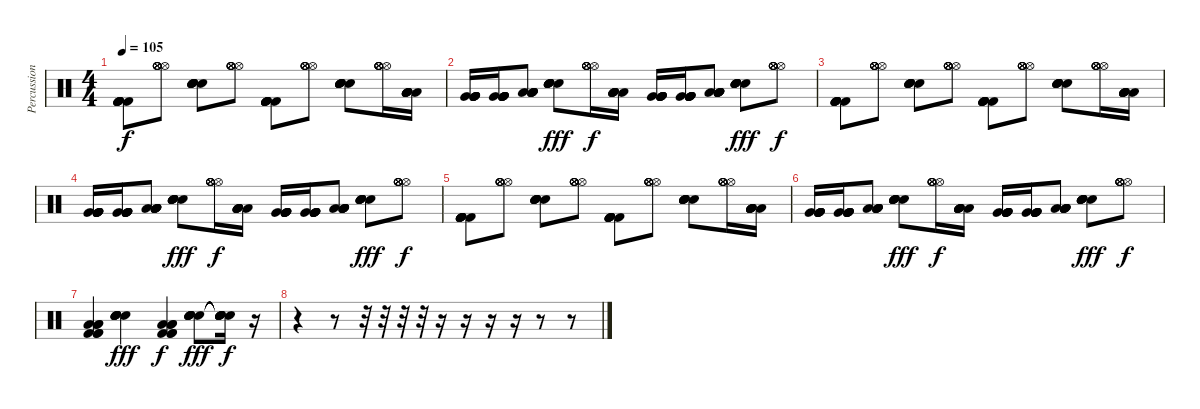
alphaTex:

\track ("Percussion" "Percussion") {instrument percussion}
\staff {score}
\articulation defaults
\ts (4 4)
\tempo 105
\clef neutral
\ks c
("Kick (hit) 2" "Kick (hit) 2" "Kick (hit) 2" "Kick (hit) 2" "Kick (hit) 2" "Kick (hit) 2").8{dy f} ("Hi-Hat (open)" "Hi-Hat (open)" "Hi-Hat (open)" "Hi-Hat (open)" "Hi-Hat (open)" "Hi-Hat (open)").8 ("Snare (hit) 2" "Snare (hit) 2" "Snare (hit) 2" "Snare (hit) 2" "Snare (hit) 2" "Snare (hit) 2").8 ("Hi-Hat (open)" "Hi-Hat (open)" "Hi-Hat (open)" "Hi-Hat (open)" "Hi-Hat (open)" "Hi-Hat (open)").8 ("Kick (hit) 2" "Kick (hit) 2" "Kick (hit) 2" "Kick (hit) 2" "Kick (hit) 2" "Kick (hit) 2").8 ("Hi-Hat (open)" "Hi-Hat (open)" "Hi-Hat (open)" "Hi-Hat (open)" "Hi-Hat (open)" "Hi-Hat (open)").8 ("Snare (hit) 2" "Snare (hit) 2" "Snare (hit) 2" "Snare (hit) 2" "Snare (hit) 2" "Snare (hit) 2").8 ("Hi-Hat (open)" "Hi-Hat (open)" "Hi-Hat (open)" "Hi-Hat (open)" "Hi-Hat (open)" "Hi-Hat (open)").16 ("Low Tom (hit)" "Low Tom (hit)" "Low Tom (hit)" "Low Tom (hit)" "Low Tom (hit)" "Low Tom (hit)").16 |
("Very Low Tom (hit)" "Very Low Tom (hit)" "Very Low Tom (hit)" "Very Low Tom (hit)" "Very Low Tom (hit)" "Very Low Tom (hit)").16 ("Very Low Tom (hit)" "Very Low Tom (hit)" "Very Low Tom (hit)" "Very Low Tom (hit)" "Very Low Tom (hit)" "Very Low Tom (hit)").16 ("Low Floor Tom (hit)" "Low Floor Tom (hit)" "Low Floor Tom (hit)" "Low Floor Tom (hit)" "Low Floor Tom (hit)" "Low Floor Tom (hit)").8 ("Snare (hit) 2" "Snare (hit) 2" "Snare (hit) 2" "Snare (hit) 2" "Snare (hit) 2" "Snare (hit) 2").8{dy fff} ("Hi-Hat (open)" "Hi-Hat (open)" "Hi-Hat (open)" "Hi-Hat (open)" "Hi-Hat (open)" "Hi-Hat (open)").16{dy f} ("Low Tom (hit)" "Low Tom (hit)" "Low Tom (hit)" "Low Tom (hit)" "Low Tom (hit)" "Low Tom (hit)").16 ("Very Low Tom (hit)" "Very Low Tom (hit)" "Very Low Tom (hit)" "Very Low Tom (hit)" "Very Low Tom (hit)" "Very Low Tom (hit)").16 ("Very Low Tom (hit)" "Very Low Tom (hit)" "Very Low Tom (hit)" "Very Low Tom (hit)" "Very Low Tom (hit)" "Very Low Tom (hit)").16 ("Low Floor Tom (hit)" "Low Floor Tom (hit)" "Low Floor Tom (hit)" "Low Floor Tom (hit)" "Low Floor Tom (hit)" "Low Floor Tom (hit)").8 ("Snare (hit) 2" "Snare (hit) 2" "Snare (hit) 2" "Snare (hit) 2" "Snare (hit) 2" "Snare (hit) 2").8{dy fff} ("Hi-Hat (open)" "Hi-Hat (open)" "Hi-Hat (open)" "Hi-Hat (open)" "Hi-Hat (open)" "Hi-Hat (open)").8{dy f} |
("Kick (hit) 2" "Kick (hit) 2" "Kick (hit) 2" "Kick (hit) 2" "Kick (hit) 2" "Kick (hit) 2").8 ("Hi-Hat (open)" "Hi-Hat (open)" "Hi-Hat (open)" "Hi-Hat (open)" "Hi-Hat (open)" "Hi-Hat (open)").8 ("Snare (hit) 2" "Snare (hit) 2" "Snare (hit) 2" "Snare (hit) 2" "Snare (hit) 2" "Snare (hit) 2").8 ("Hi-Hat (open)" "Hi-Hat (open)" "Hi-Hat (open)" "Hi-Hat (open)" "Hi-Hat (open)" "Hi-Hat (open)").8 ("Kick (hit) 2" "Kick (hit) 2" "Kick (hit) 2" "Kick (hit) 2" "Kick (hit) 2" "Kick (hit) 2").8 ("Hi-Hat (open)" "Hi-Hat (open)" "Hi-Hat (open)" "Hi-Hat (open)" "Hi-Hat (open)" "Hi-Hat (open)").8 ("Snare (hit) 2" "Snare (hit) 2" "Snare (hit) 2" "Snare (hit) 2" "Snare (hit) 2" "Snare (hit) 2").8 ("Hi-Hat (open)" "Hi-Hat (open)" "Hi-Hat (open)" "Hi-Hat (open)" "Hi-Hat (open)" "Hi-Hat (open)").16 ("Low Tom (hit)" "Low Tom (hit)" "Low Tom (hit)" "Low Tom (hit)" "Low Tom (hit)" "Low Tom (hit)").16 |
("Very Low Tom (hit)" "Very Low Tom (hit)" "Very Low Tom (hit)" "Very Low Tom (hit)" "Very Low Tom (hit)" "Very Low Tom (hit)").16 ("Very Low Tom (hit)" "Very Low Tom (hit)" "Very Low Tom (hit)" "Very Low Tom (hit)" "Very Low Tom (hit)" "Very Low Tom (hit)").16 ("Low Floor Tom (hit)" "Low Floor Tom (hit)" "Low Floor Tom (hit)" "Low Floor Tom (hit)" "Low Floor Tom (hit)" "Low Floor Tom (hit)").8 ("Snare (hit) 2" "Snare (hit) 2" "Snare (hit) 2" "Snare (hit) 2" "Snare (hit) 2" "Snare (hit) 2").8{dy fff} ("Hi-Hat (open)" "Hi-Hat (open)" "Hi-Hat (open)" "Hi-Hat (open)" "Hi-Hat (open)" "Hi-Hat (open)").16{dy f} ("Low Tom (hit)" "Low Tom (hit)" "Low Tom (hit)" "Low Tom (hit)" "Low Tom (hit)" "Low Tom (hit)").16 ("Very Low Tom (hit)" "Very Low Tom (hit)" "Very Low Tom (hit)" "Very Low Tom (hit)" "Very Low Tom (hit)" "Very Low Tom (hit)").16 ("Very Low Tom (hit)" "Very Low Tom (hit)" "Very Low Tom (hit)" "Very Low Tom (hit)" "Very Low Tom (hit)" "Very Low Tom (hit)").16 ("Low Floor Tom (hit)" "Low Floor Tom (hit)" "Low Floor Tom (hit)" "Low Floor Tom (hit)" "Low Floor Tom (hit)" "Low Floor Tom (hit)").8 ("Snare (hit) 2" "Snare (hit) 2" "Snare (hit) 2" "Snare (hit) 2" "Snare (hit) 2" "Snare (hit) 2").8{dy fff} ("Hi-Hat (open)" "Hi-Hat (open)" "Hi-Hat (open)" "Hi-Hat (open)" "Hi-Hat (open)" "Hi-Hat (open)").8{dy f} |
("Kick (hit) 2" "Kick (hit) 2" "Kick (hit) 2" "Kick (hit) 2" "Kick (hit) 2" "Kick (hit) 2").8 ("Hi-Hat (open)" "Hi-Hat (open)" "Hi-Hat (open)" "Hi-Hat (open)" "Hi-Hat (open)" "Hi-Hat (open)").8 ("Snare (hit) 2" "Snare (hit) 2" "Snare (hit) 2" "Snare (hit) 2" "Snare (hit) 2" "Snare (hit) 2").8 ("Hi-Hat (open)" "Hi-Hat (open)" "Hi-Hat (open)" "Hi-Hat (open)" "Hi-Hat (open)" "Hi-Hat (open)").8 ("Kick (hit) 2" "Kick (hit) 2" "Kick (hit) 2" "Kick (hit) 2" "Kick (hit) 2" "Kick (hit) 2").8 ("Hi-Hat (open)" "Hi-Hat (open)" "Hi-Hat (open)" "Hi-Hat (open)" "Hi-Hat (open)" "Hi-Hat (open)").8 ("Snare (hit) 2" "Snare (hit) 2" "Snare (hit) 2" "Snare (hit) 2" "Snare (hit) 2" "Snare (hit) 2").8 ("Hi-Hat (open)" "Hi-Hat (open)" "Hi-Hat (open)" "Hi-Hat (open)" "Hi-Hat (open)" "Hi-Hat (open)").16 ("Low Tom (hit)" "Low Tom (hit)" "Low Tom (hit)" "Low Tom (hit)" "Low Tom (hit)" "Low Tom (hit)").16 |
("Very Low Tom (hit)" "Very Low Tom (hit)" "Very Low Tom (hit)" "Very Low Tom (hit)" "Very Low Tom (hit)" "Very Low Tom (hit)").16 ("Very Low Tom (hit)" "Very Low Tom (hit)" "Very Low Tom (hit)" "Very Low Tom (hit)" "Very Low Tom (hit)" "Very Low Tom (hit)").16 ("Low Floor Tom (hit)" "Low Floor Tom (hit)" "Low Floor Tom (hit)" "Low Floor Tom (hit)" "Low Floor Tom (hit)" "Low Floor Tom (hit)").8 ("Snare (hit) 2" "Snare (hit) 2" "Snare (hit) 2" "Snare (hit) 2" "Snare (hit) 2" "Snare (hit) 2").8{dy fff} ("Hi-Hat (open)" "Hi-Hat (open)" "Hi-Hat (open)" "Hi-Hat (open)" "Hi-Hat (open)" "Hi-Hat (open)").16{dy f} ("Low Tom (hit)" "Low Tom (hit)" "Low Tom (hit)" "Low Tom (hit)" "Low Tom (hit)" "Low Tom (hit)").16 ("Very Low Tom (hit)" "Very Low Tom (hit)" "Very Low Tom (hit)" "Very Low Tom (hit)" "Very Low Tom (hit)" "Very Low Tom (hit)").16 ("Very Low Tom (hit)" "Very Low Tom (hit)" "Very Low Tom (hit)" "Very Low Tom (hit)" "Very Low Tom (hit)" "Very Low Tom (hit)").16 ("Low Floor Tom (hit)" "Low Floor Tom (hit)" "Low Floor Tom (hit)" "Low Floor Tom (hit)" "Low Floor Tom (hit)" "Low Floor Tom (hit)").8 ("Snare (hit) 2" "Snare (hit) 2" "Snare (hit) 2" "Snare (hit) 2" "Snare (hit) 2" "Snare (hit) 2").8{dy fff} ("Hi-Hat (open)" "Hi-Hat (open)" "Hi-Hat (open)" "Hi-Hat (open)" "Hi-Hat (open)" "Hi-Hat (open)").8{dy f} |
("Kick (hit) 2" "Low Floor Tom (hit)" "Kick (hit) 2" "Low Floor Tom (hit)" "Kick (hit) 2" "Low Floor Tom (hit)").4 ("Electric Snare (hit)" "Electric Snare (hit)" "Electric Snare (hit)" "Electric Snare (hit)" "Electric Snare (hit)" "Electric Snare (hit)").4{dy fff} ("Kick (hit) 2" "Low Floor Tom (hit)" "Kick (hit) 2" "Low Floor Tom (hit)" "Kick (hit) 2" "Low Floor Tom (hit)").4{dy f} ("Electric Snare (hit)" "Electric Snare (hit)" "Electric Snare (hit)" "Electric Snare (hit)" "Electric Snare (hit)" "Electric Snare (hit)").8{dy fff} ("Snare (hit)"{t} "Snare (hit)"{t} "Snare (hit)"{t} "Snare (hit)"{t} "Snare (hit)"{t} "Snare (hit)"{t}).16{dy f} r.16 |
r.4 r.8 r.32 r.32 r.32 r.32 r.16 r.16 r.16 r.16 r.8 r.8
